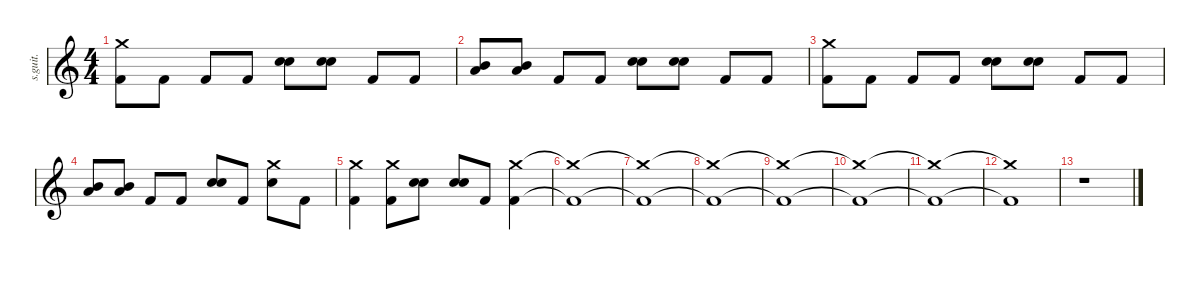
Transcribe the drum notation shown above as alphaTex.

\defaultSystemsLayout 4
\hideDynamics
\bracketExtendMode nobrackets
\track ("Taylor Hawkins" "s.guit.") {instrument percussion}
\staff {score}
\articulation defaults
\ts (4 4)
\tempo (154 hide)
\clef g2
\ks c
("Crash medium (hit)" "Kick (hit) 2").8{lyrics (0 "") lyrics (1 "") lyrics (2 "") lyrics (3 "") lyrics (4 "") dy f} "Kick (hit) 2".8{lyrics (0 "") lyrics (1 "") lyrics (2 "") lyrics (3 "") lyrics (4 "")} "Kick (hit) 2".8{lyrics (0 "") lyrics (1 "") lyrics (2 "") lyrics (3 "") lyrics (4 "")} "Kick (hit) 2".8{lyrics (0 "") lyrics (1 "") lyrics (2 "") lyrics (3 "") lyrics (4 "")} ("Snare (hit) 2" "Electric Snare (hit)").8{lyrics (0 "") lyrics (1 "") lyrics (2 "") lyrics (3 "") lyrics (4 "")} ("Snare (hit) 2" "Electric Snare (hit)").8{lyrics (0 "") lyrics (1 "") lyrics (2 "") lyrics (3 "") lyrics (4 "")} "Kick (hit) 2".8{lyrics (0 "") lyrics (1 "") lyrics (2 "") lyrics (3 "") lyrics (4 "")} "Kick (hit) 2".8{lyrics (0 "") lyrics (1 "") lyrics (2 "") lyrics (3 "") lyrics (4 "")} |
("Low Floor Tom (hit)" "Mid Tom (hit)").8{lyrics (0 "") lyrics (1 "") lyrics (2 "") lyrics (3 "") lyrics (4 "")} ("Low Floor Tom (hit)" "Mid Tom (hit)").8{lyrics (0 "") lyrics (1 "") lyrics (2 "") lyrics (3 "") lyrics (4 "")} "Kick (hit) 2".8{lyrics (0 "") lyrics (1 "") lyrics (2 "") lyrics (3 "") lyrics (4 "")} "Kick (hit) 2".8{lyrics (0 "") lyrics (1 "") lyrics (2 "") lyrics (3 "") lyrics (4 "")} ("Snare (hit) 2" "Electric Snare (hit)").8{lyrics (0 "") lyrics (1 "") lyrics (2 "") lyrics (3 "") lyrics (4 "")} ("Snare (hit) 2" "Electric Snare (hit)").8{lyrics (0 "") lyrics (1 "") lyrics (2 "") lyrics (3 "") lyrics (4 "")} "Kick (hit) 2".8{lyrics (0 "") lyrics (1 "") lyrics (2 "") lyrics (3 "") lyrics (4 "")} "Kick (hit) 2".8{lyrics (0 "") lyrics (1 "") lyrics (2 "") lyrics (3 "") lyrics (4 "")} |
("Crash medium (hit)" "Kick (hit) 2").8{lyrics (0 "") lyrics (1 "") lyrics (2 "") lyrics (3 "") lyrics (4 "")} "Kick (hit) 2".8{lyrics (0 "") lyrics (1 "") lyrics (2 "") lyrics (3 "") lyrics (4 "")} "Kick (hit) 2".8{lyrics (0 "") lyrics (1 "") lyrics (2 "") lyrics (3 "") lyrics (4 "")} "Kick (hit) 2".8{lyrics (0 "") lyrics (1 "") lyrics (2 "") lyrics (3 "") lyrics (4 "")} ("Snare (hit) 2" "Electric Snare (hit)").8{lyrics (0 "") lyrics (1 "") lyrics (2 "") lyrics (3 "") lyrics (4 "")} ("Snare (hit) 2" "Electric Snare (hit)").8{lyrics (0 "") lyrics (1 "") lyrics (2 "") lyrics (3 "") lyrics (4 "")} "Kick (hit) 2".8{lyrics (0 "") lyrics (1 "") lyrics (2 "") lyrics (3 "") lyrics (4 "")} "Kick (hit) 2".8{lyrics (0 "") lyrics (1 "") lyrics (2 "") lyrics (3 "") lyrics (4 "")} |
("Low Tom (hit)" "Mid Tom (hit)").8{lyrics (0 "") lyrics (1 "") lyrics (2 "") lyrics (3 "") lyrics (4 "")} ("Low Tom (hit)" "Mid Tom (hit)").8{lyrics (0 "") lyrics (1 "") lyrics (2 "") lyrics (3 "") lyrics (4 "")} "Kick (hit) 2".8{lyrics (0 "") lyrics (1 "") lyrics (2 "") lyrics (3 "") lyrics (4 "")} "Kick (hit) 2".8{lyrics (0 "") lyrics (1 "") lyrics (2 "") lyrics (3 "") lyrics (4 "")} ("Snare (hit) 2" "Electric Snare (hit)").8{lyrics (0 "") lyrics (1 "") lyrics (2 "") lyrics (3 "") lyrics (4 "")} "Kick (hit) 2".8{lyrics (0 "") lyrics (1 "") lyrics (2 "") lyrics (3 "") lyrics (4 "")} ("Crash medium (hit)" "Electric Snare (hit)").8{lyrics (0 "") lyrics (1 "") lyrics (2 "") lyrics (3 "") lyrics (4 "")} "Kick (hit) 2".8{lyrics (0 "") lyrics (1 "") lyrics (2 "") lyrics (3 "") lyrics (4 "")} |
("Crash medium (hit)" "Kick (hit) 2").4{lyrics (0 "") lyrics (1 "") lyrics (2 "") lyrics (3 "") lyrics (4 "")} ("Crash medium (hit)" "Kick (hit) 2").8{lyrics (0 "") lyrics (1 "") lyrics (2 "") lyrics (3 "") lyrics (4 "")} ("Snare (hit) 2" "Electric Snare (hit)").8{lyrics (0 "") lyrics (1 "") lyrics (2 "") lyrics (3 "") lyrics (4 "")} ("Snare (hit) 2" "Electric Snare (hit)").8{lyrics (0 "") lyrics (1 "") lyrics (2 "") lyrics (3 "") lyrics (4 "")} "Kick (hit) 2".8{lyrics (0 "") lyrics (1 "") lyrics (2 "") lyrics (3 "") lyrics (4 "")} ("Crash medium (hit)" "Kick (hit) 2").4{lyrics (0 "") lyrics (1 "") lyrics (2 "") lyrics (3 "") lyrics (4 "")} |
("Crash medium (hit)"{t} "Kick (hit) 2"{t}).1{lyrics (0 "") lyrics (1 "") lyrics (2 "") lyrics (3 "") lyrics (4 "")} |
("Crash medium (hit)"{t} "Kick (hit) 2"{t}).1{lyrics (0 "") lyrics (1 "") lyrics (2 "") lyrics (3 "") lyrics (4 "")} |
("Crash medium (hit)"{t} "Kick (hit) 2"{t}).1{lyrics (0 "") lyrics (1 "") lyrics (2 "") lyrics (3 "") lyrics (4 "")} |
("Crash medium (hit)"{t} "Kick (hit) 2"{t}).1{lyrics (0 "") lyrics (1 "") lyrics (2 "") lyrics (3 "") lyrics (4 "")} |
("Crash medium (hit)"{t} "Kick (hit) 2"{t}).1{lyrics (0 "") lyrics (1 "") lyrics (2 "") lyrics (3 "") lyrics (4 "")} |
("Crash medium (hit)"{t} "Kick (hit) 2"{t}).1{lyrics (0 "") lyrics (1 "") lyrics (2 "") lyrics (3 "") lyrics (4 "")} |
("Crash medium (hit)"{t} "Kick (hit) 2"{t}).1{lyrics (0 "") lyrics (1 "") lyrics (2 "") lyrics (3 "") lyrics (4 "")} |
r.1
